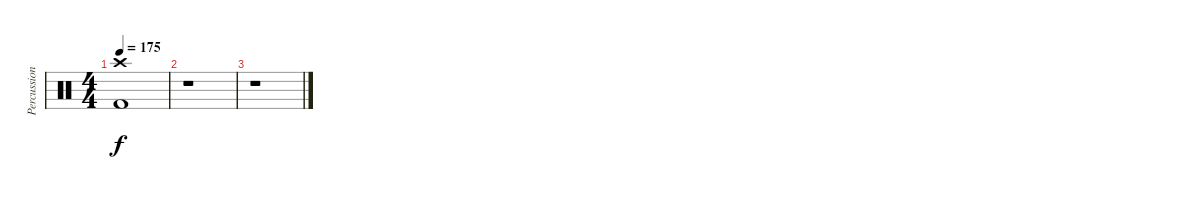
\track ("Percussions" "Percussion") {instrument percussion}
\staff {score}
\articulation defaults
\ts (4 4)
\tempo 175
\clef neutral
\ks c
("Crash high (hit)" "Kick (hit) 2").1{dy f} |
r.1 |
r.1
